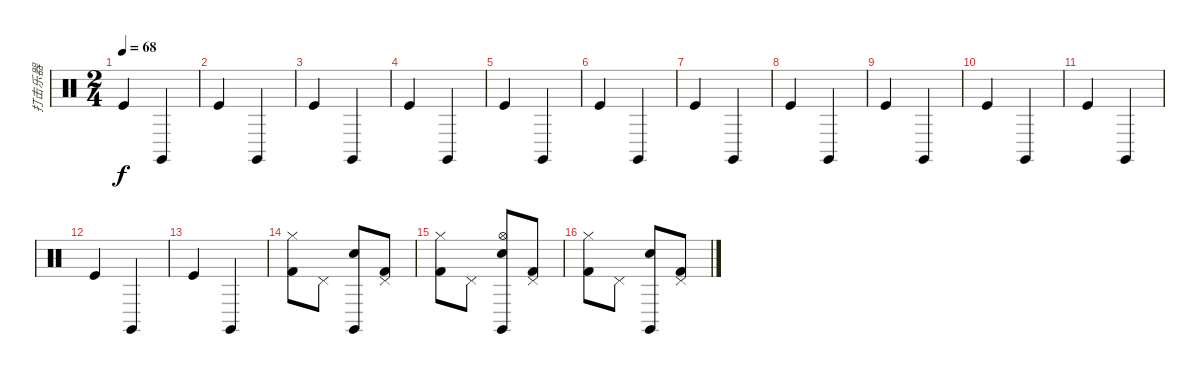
\track ("打击乐器" "打击乐器") {instrument percussion}
\staff {score}
\articulation defaults
\ts (2 4)
\tempo 68
\clef neutral
\ks c "Kick (hit)".4{dy f} "Claves (hit)".4
|
"Kick (hit)".4 "Claves (hit)".4 |
"Kick (hit)".4 "Claves (hit)".4 |
"Kick (hit)".4 "Claves (hit)".4 |
"Kick (hit)".4 "Claves (hit)".4 |
"Kick (hit)".4 "Claves (hit)".4 |
"Kick (hit)".4 "Claves (hit)".4 |
"Kick (hit)".4 "Claves (hit)".4 |
"Kick (hit)".4 "Claves (hit)".4 |
"Kick (hit)".4 "Claves (hit)".4 |
"Kick (hit)".4 "Claves (hit)".4 |
"Kick (hit)".4 "Claves (hit)".4 |
"Kick (hit)".4 "Claves (hit)".4 |
("Kick (hit) 2" "Hi-Hat (closed)").8 "Pedal Hi-Hat (hit)".8 ("Claves (hit)" "Electric Snare (hit)").8 ("Kick (hit) 2" "Pedal Hi-Hat (hit)").8 |
("Kick (hit) 2" "Hi-Hat (closed)").8 "Pedal Hi-Hat (hit)".8 ("Claves (hit)" "Hi-Hat (open)" "Electric Snare (hit)").8 ("Kick (hit) 2" "Pedal Hi-Hat (hit)").8 |
("Kick (hit) 2" "Hi-Hat (closed)").8 "Pedal Hi-Hat (hit)".8 ("Claves (hit)" "Electric Snare (hit)").8 ("Kick (hit) 2" "Pedal Hi-Hat (hit)").8
